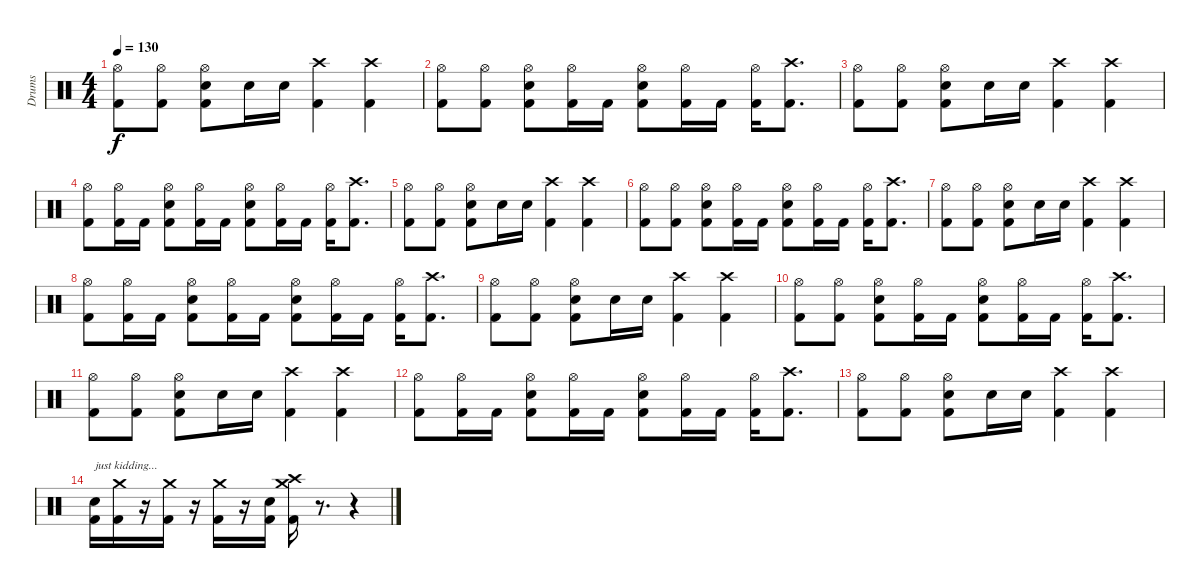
\track ("Drums" "Drums") {instrument percussion}
\staff {score}
\articulation defaults
\ts (4 4)
\tempo 130
\clef neutral
\ks c
("Hi-Hat (open)" "Kick (hit) 2").8{dy f} ("Hi-Hat (open)" "Kick (hit) 2").8 ("Hi-Hat (open)" "Snare (hit) 2" "Kick (hit) 2").8 "Snare (hit) 2".16 "Snare (hit) 2".16 ("Crash high (hit)" "Kick (hit) 2").4 ("Crash high (hit)" "Kick (hit) 2").4 |
("Hi-Hat (open)" "Kick (hit) 2").8 ("Hi-Hat (open)" "Kick (hit) 2").8 ("Hi-Hat (open)" "Snare (hit) 2" "Kick (hit) 2").8 ("Hi-Hat (open)" "Kick (hit) 2").16 "Kick (hit) 2".16 ("Hi-Hat (open)" "Snare (hit) 2" "Kick (hit) 2").8 ("Hi-Hat (open)" "Kick (hit) 2").16 "Kick (hit) 2".16 ("Hi-Hat (open)" "Kick (hit) 2").16 ("Crash high (hit)" "Kick (hit) 2").8{d} |
("Hi-Hat (open)" "Kick (hit) 2").8 ("Hi-Hat (open)" "Kick (hit) 2").8 ("Hi-Hat (open)" "Snare (hit) 2" "Kick (hit) 2").8 "Snare (hit) 2".16 "Snare (hit) 2".16 ("Crash high (hit)" "Kick (hit) 2").4 ("Crash high (hit)" "Kick (hit) 2").4 |
("Hi-Hat (open)" "Kick (hit) 2").8 ("Hi-Hat (open)" "Kick (hit) 2").16 "Kick (hit) 2".16 ("Hi-Hat (open)" "Snare (hit) 2" "Kick (hit) 2").8 ("Hi-Hat (open)" "Kick (hit) 2").16 "Kick (hit) 2".16 ("Hi-Hat (open)" "Snare (hit) 2" "Kick (hit) 2").8 ("Hi-Hat (open)" "Kick (hit) 2").16 "Kick (hit) 2".16 ("Hi-Hat (open)" "Kick (hit) 2").16 ("Crash high (hit)" "Kick (hit) 2").8{d} |
("Hi-Hat (open)" "Kick (hit) 2").8 ("Hi-Hat (open)" "Kick (hit) 2").8 ("Hi-Hat (open)" "Snare (hit) 2" "Kick (hit) 2").8 "Snare (hit) 2".16 "Snare (hit) 2".16 ("Crash high (hit)" "Kick (hit) 2").4 ("Crash high (hit)" "Kick (hit) 2").4 |
("Hi-Hat (open)" "Kick (hit) 2").8 ("Hi-Hat (open)" "Kick (hit) 2").8 ("Hi-Hat (open)" "Snare (hit) 2" "Kick (hit) 2").8 ("Hi-Hat (open)" "Kick (hit) 2").16 "Kick (hit) 2".16 ("Hi-Hat (open)" "Snare (hit) 2" "Kick (hit) 2").8 ("Hi-Hat (open)" "Kick (hit) 2").16 "Kick (hit) 2".16 ("Hi-Hat (open)" "Kick (hit) 2").16 ("Crash high (hit)" "Kick (hit) 2").8{d} |
("Hi-Hat (open)" "Kick (hit) 2").8 ("Hi-Hat (open)" "Kick (hit) 2").8 ("Hi-Hat (open)" "Snare (hit) 2" "Kick (hit) 2").8 "Snare (hit) 2".16 "Snare (hit) 2".16 ("Crash high (hit)" "Kick (hit) 2").4 ("Crash high (hit)" "Kick (hit) 2").4 |
("Hi-Hat (open)" "Kick (hit) 2").8 ("Hi-Hat (open)" "Kick (hit) 2").16 "Kick (hit) 2".16 ("Hi-Hat (open)" "Snare (hit) 2" "Kick (hit) 2").8 ("Hi-Hat (open)" "Kick (hit) 2").16 "Kick (hit) 2".16 ("Hi-Hat (open)" "Snare (hit) 2" "Kick (hit) 2").8 ("Hi-Hat (open)" "Kick (hit) 2").16 "Kick (hit) 2".16 ("Hi-Hat (open)" "Kick (hit) 2").16 ("Crash high (hit)" "Kick (hit) 2").8{d} |
("Hi-Hat (open)" "Kick (hit) 2").8 ("Hi-Hat (open)" "Kick (hit) 2").8 ("Hi-Hat (open)" "Snare (hit) 2" "Kick (hit) 2").8 "Snare (hit) 2".16 "Snare (hit) 2".16 ("Crash high (hit)" "Kick (hit) 2").4 ("Crash high (hit)" "Kick (hit) 2").4 |
("Hi-Hat (open)" "Kick (hit) 2").8 ("Hi-Hat (open)" "Kick (hit) 2").8 ("Hi-Hat (open)" "Snare (hit) 2" "Kick (hit) 2").8 ("Hi-Hat (open)" "Kick (hit) 2").16 "Kick (hit) 2".16 ("Hi-Hat (open)" "Snare (hit) 2" "Kick (hit) 2").8 ("Hi-Hat (open)" "Kick (hit) 2").16 "Kick (hit) 2".16 ("Hi-Hat (open)" "Kick (hit) 2").16 ("Crash high (hit)" "Kick (hit) 2").8{d} |
("Hi-Hat (open)" "Kick (hit) 2").8 ("Hi-Hat (open)" "Kick (hit) 2").8 ("Hi-Hat (open)" "Snare (hit) 2" "Kick (hit) 2").8 "Snare (hit) 2".16 "Snare (hit) 2".16 ("Crash high (hit)" "Kick (hit) 2").4 ("Crash high (hit)" "Kick (hit) 2").4 |
("Hi-Hat (open)" "Kick (hit) 2").8 ("Hi-Hat (open)" "Kick (hit) 2").16 "Kick (hit) 2".16 ("Hi-Hat (open)" "Snare (hit) 2" "Kick (hit) 2").8 ("Hi-Hat (open)" "Kick (hit) 2").16 "Kick (hit) 2".16 ("Hi-Hat (open)" "Snare (hit) 2" "Kick (hit) 2").8 ("Hi-Hat (open)" "Kick (hit) 2").16 "Kick (hit) 2".16 ("Hi-Hat (open)" "Kick (hit) 2").16 ("Crash high (hit)" "Kick (hit) 2").8{d} |
("Hi-Hat (open)" "Kick (hit) 2").8 ("Hi-Hat (open)" "Kick (hit) 2").8 ("Hi-Hat (open)" "Snare (hit) 2" "Kick (hit) 2").8 "Snare (hit) 2".16 "Snare (hit) 2".16 ("Crash high (hit)" "Kick (hit) 2").4 ("Crash high (hit)" "Kick (hit) 2").4 |
("Snare (hit) 2" "Kick (hit) 2").16{txt "just kidding..."} ("Crash medium (hit)" "Kick (hit) 2").16 r.16 ("Crash medium (hit)" "Kick (hit) 2").16 r.16 ("Crash medium (hit)" "Kick (hit) 2").16 r.16 ("Snare (hit) 2" "Kick (hit) 2").16 ("Crash high (hit)" "Crash medium (hit)" "Kick (hit) 2").16 r.8{d} r.4
